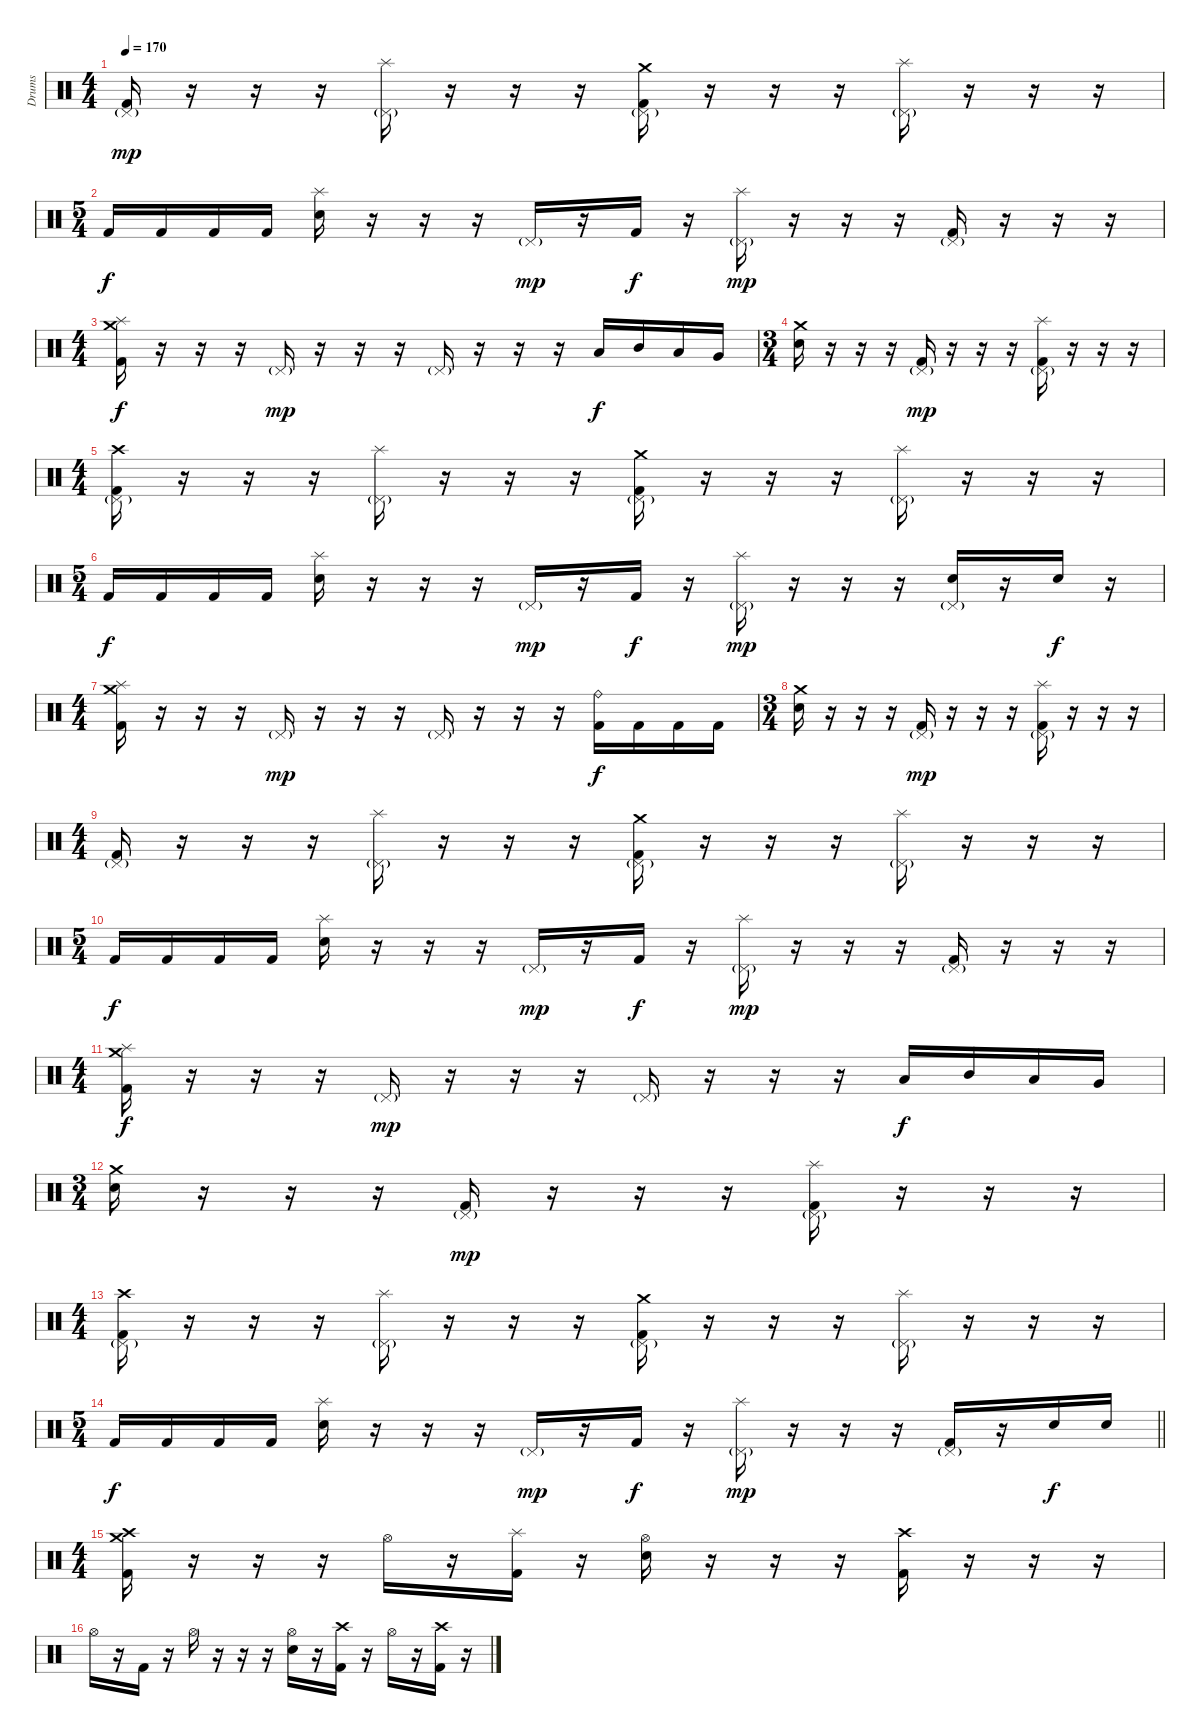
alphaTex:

\track ("Drums" "Drums") {instrument percussion}
\staff {score}
\articulation defaults
\ts (4 4)
\tempo 170
\clef neutral
\ks c
("Pedal Hi-Hat (hit)"{g} "Kick (hit) 2").16{dy mp} r.16 r.16 r.16 ("Splash (hit)" "Pedal Hi-Hat (hit)"{g}).16 r.16 r.16 r.16 ("Crash medium (hit)" "Pedal Hi-Hat (hit)"{g} "Kick (hit) 2").16 r.16 r.16 r.16 ("Splash (hit)" "Pedal Hi-Hat (hit)"{g}).16 r.16 r.16 r.16 |
\ts (5 4)
"Kick (hit) 2".16{dy f} "Kick (hit) 2".16 "Kick (hit) 2".16 "Kick (hit) 2".16 ("Splash (hit)" "Electric Snare (hit)").16 r.16 r.16 r.16 "Pedal Hi-Hat (hit)"{g}.16{dy mp} r.16 "Kick (hit) 2".16{dy f} r.16 ("Splash (hit)" "Pedal Hi-Hat (hit)"{g}).16{dy mp} r.16 r.16 r.16 ("Pedal Hi-Hat (hit)"{g} "Kick (hit) 2").16 r.16 r.16 r.16 |
\ts (4 4)
("Crash medium (hit)" "Splash (hit)" "Kick (hit) 2").16{dy f} r.16 r.16 r.16 "Pedal Hi-Hat (hit)"{g}.16{dy mp} r.16 r.16 r.16 "Pedal Hi-Hat (hit)"{g}.16 r.16 r.16 r.16 "Low Tom (hit)".16{dy f} "Mid Tom (hit)".16 "Low Tom (hit)".16 "Very Low Tom (hit)".16 |
\ts (3 4)
("Crash medium (hit)" "Electric Snare (hit)").16 r.16 r.16 r.16 ("Pedal Hi-Hat (hit)"{g} "Kick (hit) 2").16{dy mp} r.16 r.16 r.16 ("Splash (hit)" "Pedal Hi-Hat (hit)"{g} "Kick (hit) 2").16 r.16 r.16 r.16 |
\ts (4 4)
("Crash high (hit)" "Pedal Hi-Hat (hit)"{g} "Kick (hit) 2").16 r.16 r.16 r.16 ("Splash (hit)" "Pedal Hi-Hat (hit)"{g}).16 r.16 r.16 r.16 ("Crash medium (hit)" "Pedal Hi-Hat (hit)"{g} "Kick (hit) 2").16 r.16 r.16 r.16 ("Splash (hit)" "Pedal Hi-Hat (hit)"{g}).16 r.16 r.16 r.16 |
\ts (5 4)
"Kick (hit) 2".16{dy f} "Kick (hit) 2".16 "Kick (hit) 2".16 "Kick (hit) 2".16 ("Splash (hit)" "Electric Snare (hit)").16 r.16 r.16 r.16 "Pedal Hi-Hat (hit)"{g}.16{dy mp} r.16 "Kick (hit) 2".16{dy f} r.16 ("Splash (hit)" "Pedal Hi-Hat (hit)"{g}).16{dy mp} r.16 r.16 r.16 ("Pedal Hi-Hat (hit)"{g} "Electric Snare (hit)").16 r.16 "Electric Snare (hit)".16{dy f} r.16 |
\ts (4 4)
("Crash medium (hit)" "Splash (hit)" "Kick (hit) 2").16 r.16 r.16 r.16 "Pedal Hi-Hat (hit)"{g}.16{dy mp} r.16 r.16 r.16 "Pedal Hi-Hat (hit)"{g}.16 r.16 r.16 r.16 ("Ride (bell)" "Kick (hit) 2").16{dy f} "Kick (hit) 2".16 "Kick (hit) 2".16 "Kick (hit) 2".16 |
\ts (3 4)
("Crash medium (hit)" "Electric Snare (hit)").16 r.16 r.16 r.16 ("Pedal Hi-Hat (hit)"{g} "Kick (hit) 2").16{dy mp} r.16 r.16 r.16 ("Splash (hit)" "Pedal Hi-Hat (hit)"{g} "Kick (hit) 2").16 r.16 r.16 r.16 |
\ts (4 4)
("Pedal Hi-Hat (hit)"{g} "Kick (hit) 2").16 r.16 r.16 r.16 ("Splash (hit)" "Pedal Hi-Hat (hit)"{g}).16 r.16 r.16 r.16 ("Crash medium (hit)" "Pedal Hi-Hat (hit)"{g} "Kick (hit) 2").16 r.16 r.16 r.16 ("Splash (hit)" "Pedal Hi-Hat (hit)"{g}).16 r.16 r.16 r.16 |
\ts (5 4)
"Kick (hit) 2".16{dy f} "Kick (hit) 2".16 "Kick (hit) 2".16 "Kick (hit) 2".16 ("Splash (hit)" "Electric Snare (hit)").16 r.16 r.16 r.16 "Pedal Hi-Hat (hit)"{g}.16{dy mp} r.16 "Kick (hit) 2".16{dy f} r.16 ("Splash (hit)" "Pedal Hi-Hat (hit)"{g}).16{dy mp} r.16 r.16 r.16 ("Pedal Hi-Hat (hit)"{g} "Kick (hit) 2").16 r.16 r.16 r.16 |
\ts (4 4)
("Crash medium (hit)" "Splash (hit)" "Kick (hit) 2").16{dy f} r.16 r.16 r.16 "Pedal Hi-Hat (hit)"{g}.16{dy mp} r.16 r.16 r.16 "Pedal Hi-Hat (hit)"{g}.16 r.16 r.16 r.16 "Low Tom (hit)".16{dy f} "Mid Tom (hit)".16 "Low Tom (hit)".16 "Very Low Tom (hit)".16 |
\ts (3 4)
("Crash medium (hit)" "Electric Snare (hit)").16 r.16 r.16 r.16 ("Pedal Hi-Hat (hit)"{g} "Kick (hit) 2").16{dy mp} r.16 r.16 r.16 ("Splash (hit)" "Pedal Hi-Hat (hit)"{g} "Kick (hit) 2").16 r.16 r.16 r.16 |
\ts (4 4)
("Crash high (hit)" "Pedal Hi-Hat (hit)"{g} "Kick (hit) 2").16 r.16 r.16 r.16 ("Splash (hit)" "Pedal Hi-Hat (hit)"{g}).16 r.16 r.16 r.16 ("Crash medium (hit)" "Pedal Hi-Hat (hit)"{g} "Kick (hit) 2").16 r.16 r.16 r.16 ("Splash (hit)" "Pedal Hi-Hat (hit)"{g}).16 r.16 r.16 r.16 |
\ts (5 4)
\barLineRight lightlight "Kick (hit) 2".16{dy f} "Kick (hit) 2".16 "Kick (hit) 2".16 "Kick (hit) 2".16
("Splash (hit)" "Electric Snare (hit)").16 r.16 r.16 r.16 "Pedal Hi-Hat (hit)"{g}.16{dy mp} r.16 "Kick (hit) 2".16{dy f} r.16 ("Splash (hit)" "Pedal Hi-Hat (hit)"{g}).16{dy mp} r.16 r.16 r.16 ("Pedal Hi-Hat (hit)"{g} "Kick (hit) 2").16 r.16 "Electric Snare (hit)".16{dy f} "Electric Snare (hit)".16 |
\ts (4 4)
\section ("" "")
("Crash high (hit)" "Crash medium (hit)" "Kick (hit) 2").16 r.16 r.16 r.16 "Hi-Hat (open)".16 r.16 ("Splash (hit)" "Kick (hit) 2").16 r.16 ("Hi-Hat (open)" "Electric Snare (hit)").16 r.16 r.16 r.16 ("Crash high (hit)" "Kick (hit) 2").16 r.16 r.16 r.16 |
"Hi-Hat (open)".16 r.16 "Kick (hit) 2".16 r.16 "Hi-Hat (open)".16 r.16 r.16 r.16 ("Hi-Hat (open)" "Electric Snare (hit)").16 r.16 ("Crash high (hit)" "Kick (hit) 2").16 r.16 "Hi-Hat (open)".16 r.16 ("Crash high (hit)" "Kick (hit) 2").16 r.16
